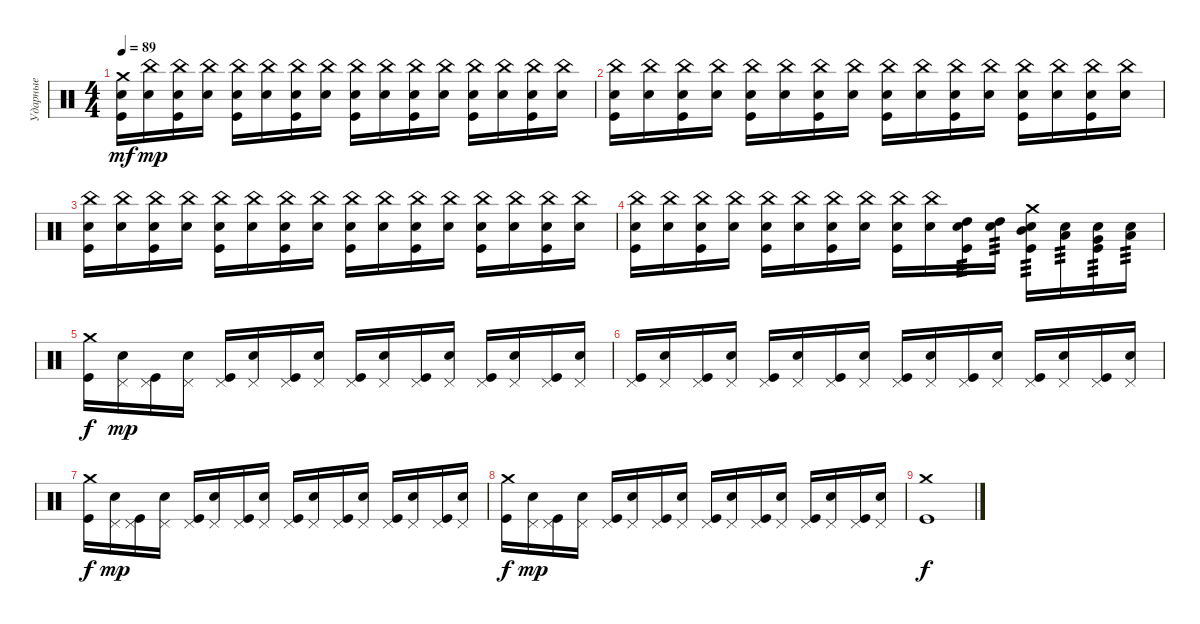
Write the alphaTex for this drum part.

\track ("Ударные" "Ударные") {instrument percussion}
\staff {score}
\articulation defaults
\ts (4 4)
\tempo 89
\clef neutral
\ks c
("Crash medium (hit)" "Electric Snare (hit)" "Kick (hit)").16{dy mf} ("China (hit)" "Electric Snare (hit)").16{dy mp} ("China (hit)" "Electric Snare (hit)" "Kick (hit)").16 ("China (hit)" "Electric Snare (hit)").16 ("China (hit)" "Electric Snare (hit)" "Kick (hit)").16 ("China (hit)" "Electric Snare (hit)").16 ("China (hit)" "Electric Snare (hit)" "Kick (hit)").16 ("China (hit)" "Electric Snare (hit)").16 ("China (hit)" "Electric Snare (hit)" "Kick (hit)").16 ("China (hit)" "Electric Snare (hit)").16 ("China (hit)" "Electric Snare (hit)" "Kick (hit)").16 ("China (hit)" "Electric Snare (hit)").16 ("China (hit)" "Electric Snare (hit)" "Kick (hit)").16 ("China (hit)" "Electric Snare (hit)").16 ("China (hit)" "Electric Snare (hit)" "Kick (hit)").16 ("China (hit)" "Electric Snare (hit)").16 |
("China (hit)" "Electric Snare (hit)" "Kick (hit)").16 ("China (hit)" "Electric Snare (hit)").16 ("China (hit)" "Electric Snare (hit)" "Kick (hit)").16 ("China (hit)" "Electric Snare (hit)").16 ("China (hit)" "Electric Snare (hit)" "Kick (hit)").16 ("China (hit)" "Electric Snare (hit)").16 ("China (hit)" "Electric Snare (hit)" "Kick (hit)").16 ("China (hit)" "Electric Snare (hit)").16 ("China (hit)" "Electric Snare (hit)" "Kick (hit)").16 ("China (hit)" "Electric Snare (hit)").16 ("China (hit)" "Electric Snare (hit)" "Kick (hit)").16 ("China (hit)" "Electric Snare (hit)").16 ("China (hit)" "Electric Snare (hit)" "Kick (hit)").16 ("China (hit)" "Electric Snare (hit)").16 ("China (hit)" "Electric Snare (hit)" "Kick (hit)").16 ("China (hit)" "Electric Snare (hit)").16 |
("China (hit)" "Electric Snare (hit)" "Kick (hit)").16 ("China (hit)" "Electric Snare (hit)").16 ("China (hit)" "Electric Snare (hit)" "Kick (hit)").16 ("China (hit)" "Electric Snare (hit)").16 ("China (hit)" "Electric Snare (hit)" "Kick (hit)").16 ("China (hit)" "Electric Snare (hit)").16 ("China (hit)" "Electric Snare (hit)" "Kick (hit)").16 ("China (hit)" "Electric Snare (hit)").16 ("China (hit)" "Electric Snare (hit)" "Kick (hit)").16 ("China (hit)" "Electric Snare (hit)").16 ("China (hit)" "Electric Snare (hit)" "Kick (hit)").16 ("China (hit)" "Electric Snare (hit)").16 ("China (hit)" "Electric Snare (hit)" "Kick (hit)").16 ("China (hit)" "Electric Snare (hit)").16 ("China (hit)" "Electric Snare (hit)" "Kick (hit)").16 ("China (hit)" "Electric Snare (hit)").16 |
("China (hit)" "Electric Snare (hit)" "Kick (hit)").16 ("China (hit)" "Electric Snare (hit)").16 ("China (hit)" "Electric Snare (hit)" "Kick (hit)").16 ("China (hit)" "Electric Snare (hit)").16 ("China (hit)" "Electric Snare (hit)" "Kick (hit)").16 ("China (hit)" "Electric Snare (hit)").16 ("China (hit)" "Electric Snare (hit)" "Kick (hit)").16 ("China (hit)" "Electric Snare (hit)").16 ("China (hit)" "Electric Snare (hit)" "Kick (hit)").16 ("China (hit)" "Electric Snare (hit)").16 ("High Tom (hit)" "Electric Snare (hit)" "Kick (hit)").16{tp 3} ("High Tom (hit)" "Electric Snare (hit)").16{tp 3} ("Mid Tom (hit)" "Crash medium (hit)" "Electric Snare (hit)" "Kick (hit)").16{tp 3} ("Low Tom (hit)" "Electric Snare (hit)").16{tp 3} ("Very Low Tom (hit)" "Electric Snare (hit)" "Kick (hit)").16{tp 3} ("Low Floor Tom (hit)" "Electric Snare (hit)").16{tp 3} |
("Crash medium (hit)" "Kick (hit)").16{dy f} ("Pedal Hi-Hat (hit)" "Electric Snare (hit)").16{dy mp} ("Pedal Hi-Hat (hit)" "Kick (hit)").16 ("Pedal Hi-Hat (hit)" "Electric Snare (hit)").16 ("Pedal Hi-Hat (hit)" "Kick (hit)").16 ("Pedal Hi-Hat (hit)" "Electric Snare (hit)").16 ("Pedal Hi-Hat (hit)" "Kick (hit)").16 ("Pedal Hi-Hat (hit)" "Electric Snare (hit)").16 ("Pedal Hi-Hat (hit)" "Kick (hit)").16 ("Pedal Hi-Hat (hit)" "Electric Snare (hit)").16 ("Pedal Hi-Hat (hit)" "Kick (hit)").16 ("Pedal Hi-Hat (hit)" "Electric Snare (hit)").16 ("Pedal Hi-Hat (hit)" "Kick (hit)").16 ("Pedal Hi-Hat (hit)" "Electric Snare (hit)").16 ("Pedal Hi-Hat (hit)" "Kick (hit)").16 ("Pedal Hi-Hat (hit)" "Electric Snare (hit)").16 |
("Pedal Hi-Hat (hit)" "Kick (hit)").16 ("Pedal Hi-Hat (hit)" "Electric Snare (hit)").16 ("Pedal Hi-Hat (hit)" "Kick (hit)").16 ("Pedal Hi-Hat (hit)" "Electric Snare (hit)").16 ("Pedal Hi-Hat (hit)" "Kick (hit)").16 ("Pedal Hi-Hat (hit)" "Electric Snare (hit)").16 ("Pedal Hi-Hat (hit)" "Kick (hit)").16 ("Pedal Hi-Hat (hit)" "Electric Snare (hit)").16 ("Pedal Hi-Hat (hit)" "Kick (hit)").16 ("Pedal Hi-Hat (hit)" "Electric Snare (hit)").16 ("Pedal Hi-Hat (hit)" "Kick (hit)").16 ("Pedal Hi-Hat (hit)" "Electric Snare (hit)").16 ("Pedal Hi-Hat (hit)" "Kick (hit)").16 ("Pedal Hi-Hat (hit)" "Electric Snare (hit)").16 ("Pedal Hi-Hat (hit)" "Kick (hit)").16 ("Pedal Hi-Hat (hit)" "Electric Snare (hit)").16 |
("Crash medium (hit)" "Kick (hit)").16{dy f} ("Pedal Hi-Hat (hit)" "Electric Snare (hit)").16{dy mp} ("Pedal Hi-Hat (hit)" "Kick (hit)").16 ("Pedal Hi-Hat (hit)" "Electric Snare (hit)").16 ("Pedal Hi-Hat (hit)" "Kick (hit)").16 ("Pedal Hi-Hat (hit)" "Electric Snare (hit)").16 ("Pedal Hi-Hat (hit)" "Kick (hit)").16 ("Pedal Hi-Hat (hit)" "Electric Snare (hit)").16 ("Pedal Hi-Hat (hit)" "Kick (hit)").16 ("Pedal Hi-Hat (hit)" "Electric Snare (hit)").16 ("Pedal Hi-Hat (hit)" "Kick (hit)").16 ("Pedal Hi-Hat (hit)" "Electric Snare (hit)").16 ("Pedal Hi-Hat (hit)" "Kick (hit)").16 ("Pedal Hi-Hat (hit)" "Electric Snare (hit)").16 ("Pedal Hi-Hat (hit)" "Kick (hit)").16 ("Pedal Hi-Hat (hit)" "Electric Snare (hit)").16 |
("Crash medium (hit)" "Kick (hit)").16{dy f} ("Pedal Hi-Hat (hit)" "Electric Snare (hit)").16{dy mp} ("Pedal Hi-Hat (hit)" "Kick (hit)").16 ("Pedal Hi-Hat (hit)" "Electric Snare (hit)").16 ("Pedal Hi-Hat (hit)" "Kick (hit)").16 ("Pedal Hi-Hat (hit)" "Electric Snare (hit)").16 ("Pedal Hi-Hat (hit)" "Kick (hit)").16 ("Pedal Hi-Hat (hit)" "Electric Snare (hit)").16 ("Pedal Hi-Hat (hit)" "Kick (hit)").16 ("Pedal Hi-Hat (hit)" "Electric Snare (hit)").16 ("Pedal Hi-Hat (hit)" "Kick (hit)").16 ("Pedal Hi-Hat (hit)" "Electric Snare (hit)").16 ("Pedal Hi-Hat (hit)" "Kick (hit)").16 ("Pedal Hi-Hat (hit)" "Electric Snare (hit)").16 ("Pedal Hi-Hat (hit)" "Kick (hit)").16 ("Pedal Hi-Hat (hit)" "Electric Snare (hit)").16 |
("Crash medium (hit)" "Kick (hit)").1{dy f}
